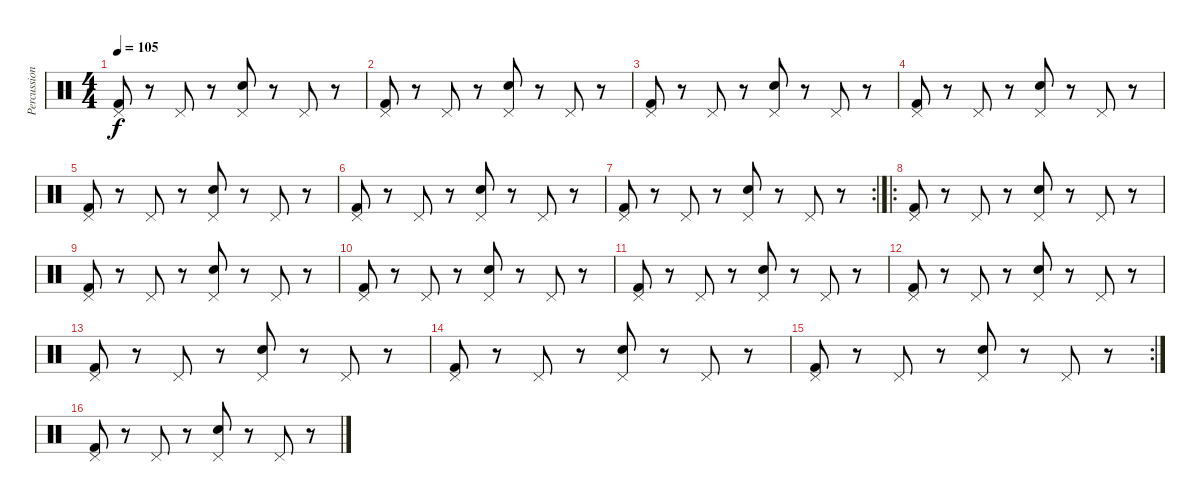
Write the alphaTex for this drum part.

\track ("Percussion" "Percussion") {instrument percussion}
\staff {score}
\articulation defaults
\ts (4 4)
\tempo 105
\clef neutral
\ks c
("Pedal Hi-Hat (hit)" "Kick (hit) 2").8{dy f} r.8 "Pedal Hi-Hat (hit)".8 r.8 ("Pedal Hi-Hat (hit)" "Snare (hit) 2").8 r.8 "Pedal Hi-Hat (hit)".8 r.8 |
("Pedal Hi-Hat (hit)" "Kick (hit) 2").8 r.8 "Pedal Hi-Hat (hit)".8 r.8 ("Pedal Hi-Hat (hit)" "Snare (hit) 2").8 r.8 "Pedal Hi-Hat (hit)".8 r.8 |
("Pedal Hi-Hat (hit)" "Kick (hit) 2").8 r.8 "Pedal Hi-Hat (hit)".8 r.8 ("Pedal Hi-Hat (hit)" "Snare (hit) 2").8 r.8 "Pedal Hi-Hat (hit)".8 r.8 |
("Pedal Hi-Hat (hit)" "Kick (hit) 2").8 r.8 "Pedal Hi-Hat (hit)".8 r.8 ("Pedal Hi-Hat (hit)" "Snare (hit) 2").8 r.8 "Pedal Hi-Hat (hit)".8 r.8 |
("Pedal Hi-Hat (hit)" "Kick (hit) 2").8 r.8 "Pedal Hi-Hat (hit)".8 r.8 ("Pedal Hi-Hat (hit)" "Snare (hit) 2").8 r.8 "Pedal Hi-Hat (hit)".8 r.8 |
("Pedal Hi-Hat (hit)" "Kick (hit) 2").8 r.8 "Pedal Hi-Hat (hit)".8 r.8 ("Pedal Hi-Hat (hit)" "Snare (hit) 2").8 r.8 "Pedal Hi-Hat (hit)".8 r.8 |
\rc 2
("Pedal Hi-Hat (hit)" "Kick (hit) 2").8 r.8 "Pedal Hi-Hat (hit)".8 r.8 ("Pedal Hi-Hat (hit)" "Snare (hit) 2").8 r.8 "Pedal Hi-Hat (hit)".8 r.8 |
\ro
("Pedal Hi-Hat (hit)" "Kick (hit) 2").8 r.8 "Pedal Hi-Hat (hit)".8 r.8 ("Pedal Hi-Hat (hit)" "Snare (hit) 2").8 r.8 "Pedal Hi-Hat (hit)".8 r.8 |
("Pedal Hi-Hat (hit)" "Kick (hit) 2").8 r.8 "Pedal Hi-Hat (hit)".8 r.8 ("Pedal Hi-Hat (hit)" "Snare (hit) 2").8 r.8 "Pedal Hi-Hat (hit)".8 r.8 |
("Pedal Hi-Hat (hit)" "Kick (hit) 2").8 r.8 "Pedal Hi-Hat (hit)".8 r.8 ("Pedal Hi-Hat (hit)" "Snare (hit) 2").8 r.8 "Pedal Hi-Hat (hit)".8 r.8 |
("Pedal Hi-Hat (hit)" "Kick (hit) 2").8 r.8 "Pedal Hi-Hat (hit)".8 r.8 ("Pedal Hi-Hat (hit)" "Snare (hit) 2").8 r.8 "Pedal Hi-Hat (hit)".8 r.8 |
("Pedal Hi-Hat (hit)" "Kick (hit) 2").8 r.8 "Pedal Hi-Hat (hit)".8 r.8 ("Pedal Hi-Hat (hit)" "Snare (hit) 2").8 r.8 "Pedal Hi-Hat (hit)".8 r.8 |
("Pedal Hi-Hat (hit)" "Kick (hit) 2").8 r.8 "Pedal Hi-Hat (hit)".8 r.8 ("Pedal Hi-Hat (hit)" "Snare (hit) 2").8 r.8 "Pedal Hi-Hat (hit)".8 r.8 |
("Pedal Hi-Hat (hit)" "Kick (hit) 2").8 r.8 "Pedal Hi-Hat (hit)".8 r.8 ("Pedal Hi-Hat (hit)" "Snare (hit) 2").8 r.8 "Pedal Hi-Hat (hit)".8 r.8 |
\rc 2
("Pedal Hi-Hat (hit)" "Kick (hit) 2").8 r.8 "Pedal Hi-Hat (hit)".8 r.8 ("Pedal Hi-Hat (hit)" "Snare (hit) 2").8 r.8 "Pedal Hi-Hat (hit)".8 r.8 |
("Pedal Hi-Hat (hit)" "Kick (hit) 2").8 r.8 "Pedal Hi-Hat (hit)".8 r.8 ("Pedal Hi-Hat (hit)" "Snare (hit) 2").8 r.8 "Pedal Hi-Hat (hit)".8 r.8
